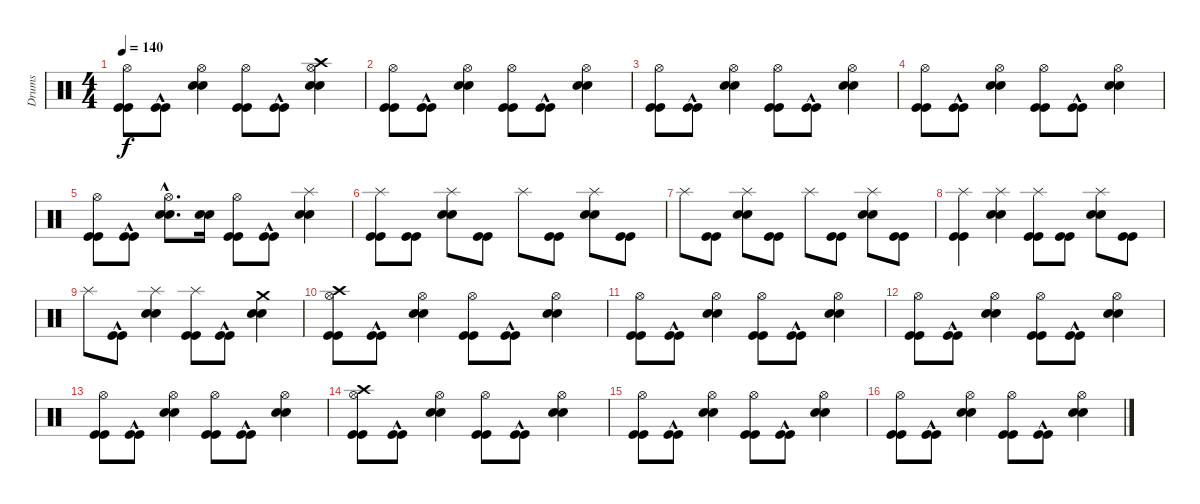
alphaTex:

\track ("Drums" "Drums") {instrument percussion}
\staff {score}
\articulation defaults
\ts (4 4)
\tempo 140
\clef neutral
\ks c
("Kick (hit)" "Kick (hit)" "Hi-Hat (open)").8{dy f} ("Kick (hit)"{hac} "Kick (hit)"{hac}).8 ("Snare (hit) 2" "Snare (hit) 2" "Hi-Hat (open)").4 ("Kick (hit)" "Kick (hit)" "Hi-Hat (open)").8 ("Kick (hit)"{hac} "Kick (hit)"{hac}).8 ("Snare (hit) 2" "Snare (hit) 2" "Hi-Hat (open)" "Crash high (hit)").4 |
("Kick (hit)" "Kick (hit)" "Hi-Hat (open)").8 ("Kick (hit)"{hac} "Kick (hit)"{hac}).8 ("Snare (hit) 2" "Snare (hit) 2" "Hi-Hat (open)").4 ("Kick (hit)" "Kick (hit)" "Hi-Hat (open)").8 ("Kick (hit)"{hac} "Kick (hit)"{hac}).8 ("Snare (hit) 2" "Snare (hit) 2" "Hi-Hat (open)").4 |
("Kick (hit)" "Kick (hit)" "Hi-Hat (open)").8 ("Kick (hit)"{hac} "Kick (hit)"{hac}).8 ("Snare (hit) 2" "Snare (hit) 2" "Hi-Hat (open)").4 ("Kick (hit)" "Kick (hit)" "Hi-Hat (open)").8 ("Kick (hit)"{hac} "Kick (hit)"{hac}).8 ("Snare (hit) 2" "Snare (hit) 2" "Hi-Hat (open)").4 |
("Kick (hit)" "Kick (hit)" "Hi-Hat (open)").8 ("Kick (hit)"{hac} "Kick (hit)"{hac}).8 ("Snare (hit) 2" "Snare (hit) 2" "Hi-Hat (open)").4 ("Kick (hit)" "Kick (hit)" "Hi-Hat (open)").8 ("Kick (hit)"{hac} "Kick (hit)"{hac}).8 ("Snare (hit) 2" "Snare (hit) 2" "Hi-Hat (open)").4 |
("Kick (hit)" "Kick (hit)" "Hi-Hat (open)").8 ("Kick (hit)"{hac} "Kick (hit)"{hac}).8 ("Snare (hit) 2"{hac} "Snare (hit) 2"{hac} "Hi-Hat (open)").8{d} ("Snare (hit) 2" "Snare (hit) 2").16 ("Kick (hit)" "Kick (hit)" "Hi-Hat (open)").8 ("Kick (hit)"{hac} "Kick (hit)"{hac}).8 ("Snare (hit) 2" "Snare (hit) 2" "Splash (hit)").4 |
("Kick (hit)" "Kick (hit)" "Splash (hit)").8 ("Kick (hit)" "Kick (hit)").8 ("Snare (hit) 2" "Snare (hit) 2" "Splash (hit)").8 ("Kick (hit)" "Kick (hit)").8 "Splash (hit)".8 ("Kick (hit)" "Kick (hit)").8 ("Snare (hit) 2" "Snare (hit) 2" "Splash (hit)").8 ("Kick (hit)" "Kick (hit)").8 |
"Splash (hit)".8 ("Kick (hit)" "Kick (hit)").8 ("Snare (hit) 2" "Snare (hit) 2" "Splash (hit)").8 ("Kick (hit)" "Kick (hit)").8 "Splash (hit)".8 ("Kick (hit)" "Kick (hit)").8 ("Snare (hit) 2" "Snare (hit) 2" "Splash (hit)").8 ("Kick (hit)" "Kick (hit)").8 |
("Kick (hit)" "Kick (hit)" "Splash (hit)").4 ("Snare (hit) 2" "Snare (hit) 2" "Splash (hit)").4 ("Kick (hit)" "Kick (hit)" "Splash (hit)").8 ("Kick (hit)" "Kick (hit)").8 ("Snare (hit) 2" "Snare (hit) 2" "Splash (hit)").8 ("Kick (hit)" "Kick (hit)").8 |
"Splash (hit)".8 ("Kick (hit)"{hac} "Kick (hit)"{hac}).8 ("Snare (hit) 2" "Snare (hit) 2" "Splash (hit)").4 ("Kick (hit)" "Kick (hit)" "Splash (hit)").8 ("Kick (hit)"{hac} "Kick (hit)"{hac}).8 ("Snare (hit) 2" "Snare (hit) 2" "Crash medium (hit)").4 |
("Kick (hit)" "Kick (hit)" "Hi-Hat (open)" "Crash high (hit)").8 ("Kick (hit)"{hac} "Kick (hit)"{hac}).8 ("Snare (hit) 2" "Snare (hit) 2" "Hi-Hat (open)").4 ("Kick (hit)" "Kick (hit)" "Hi-Hat (open)").8 ("Kick (hit)"{hac} "Kick (hit)"{hac}).8 ("Snare (hit) 2" "Snare (hit) 2" "Hi-Hat (open)").4 |
("Kick (hit)" "Kick (hit)" "Hi-Hat (open)").8 ("Kick (hit)"{hac} "Kick (hit)"{hac}).8 ("Snare (hit) 2" "Snare (hit) 2" "Hi-Hat (open)").4 ("Kick (hit)" "Kick (hit)" "Hi-Hat (open)").8 ("Kick (hit)"{hac} "Kick (hit)"{hac}).8 ("Snare (hit) 2" "Snare (hit) 2" "Hi-Hat (open)").4 |
("Kick (hit)" "Kick (hit)" "Hi-Hat (open)").8 ("Kick (hit)"{hac} "Kick (hit)"{hac}).8 ("Snare (hit) 2" "Snare (hit) 2" "Hi-Hat (open)").4 ("Kick (hit)" "Kick (hit)" "Hi-Hat (open)").8 ("Kick (hit)"{hac} "Kick (hit)"{hac}).8 ("Snare (hit) 2" "Snare (hit) 2" "Hi-Hat (open)").4 |
("Kick (hit)" "Kick (hit)" "Hi-Hat (open)").8 ("Kick (hit)"{hac} "Kick (hit)"{hac}).8 ("Snare (hit) 2" "Snare (hit) 2" "Hi-Hat (open)").4 ("Kick (hit)" "Kick (hit)" "Hi-Hat (open)").8 ("Kick (hit)"{hac} "Kick (hit)"{hac}).8 ("Snare (hit) 2" "Snare (hit) 2" "Hi-Hat (open)").4 |
("Kick (hit)" "Kick (hit)" "Hi-Hat (open)" "Crash high (hit)").8 ("Kick (hit)"{hac} "Kick (hit)"{hac}).8 ("Snare (hit) 2" "Snare (hit) 2" "Hi-Hat (open)").4 ("Kick (hit)" "Kick (hit)" "Hi-Hat (open)").8 ("Kick (hit)"{hac} "Kick (hit)"{hac}).8 ("Snare (hit) 2" "Snare (hit) 2" "Hi-Hat (open)").4 |
("Kick (hit)" "Kick (hit)" "Hi-Hat (open)").8 ("Kick (hit)"{hac} "Kick (hit)"{hac}).8 ("Snare (hit) 2" "Snare (hit) 2" "Hi-Hat (open)").4 ("Kick (hit)" "Kick (hit)" "Hi-Hat (open)").8 ("Kick (hit)"{hac} "Kick (hit)"{hac}).8 ("Snare (hit) 2" "Snare (hit) 2" "Hi-Hat (open)").4 |
("Kick (hit)" "Kick (hit)" "Hi-Hat (open)").8 ("Kick (hit)"{hac} "Kick (hit)"{hac}).8 ("Snare (hit) 2" "Snare (hit) 2" "Hi-Hat (open)").4 ("Kick (hit)" "Kick (hit)" "Hi-Hat (open)").8 ("Kick (hit)"{hac} "Kick (hit)"{hac}).8 ("Snare (hit) 2" "Snare (hit) 2" "Hi-Hat (open)").4
